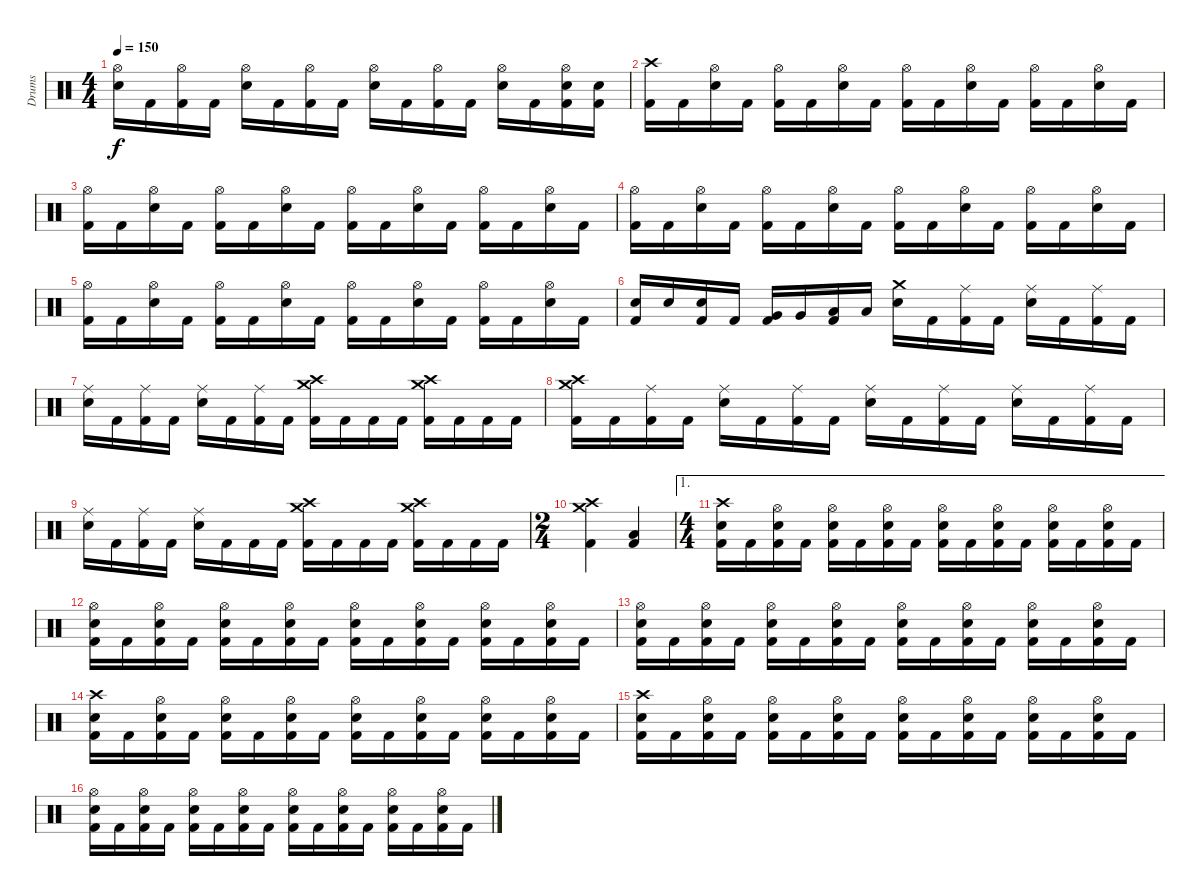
\track ("Drums" "Drums") {instrument percussion}
\staff {score}
\articulation defaults
\ts (4 4)
\tempo 150
\clef neutral
\ks c
("Hi-Hat (open)" "Electric Snare (hit)").16{dy f} "Kick (hit) 2".16 ("Hi-Hat (open)" "Kick (hit) 2").16 "Kick (hit) 2".16 ("Hi-Hat (open)" "Electric Snare (hit)").16 "Kick (hit) 2".16 ("Hi-Hat (open)" "Kick (hit) 2").16 "Kick (hit) 2".16 ("Hi-Hat (open)" "Electric Snare (hit)").16 "Kick (hit) 2".16 ("Hi-Hat (open)" "Kick (hit) 2").16 "Kick (hit) 2".16 ("Hi-Hat (open)" "Electric Snare (hit)").16 "Kick (hit) 2".16 ("Hi-Hat (open)" "Electric Snare (hit)" "Kick (hit) 2").16 ("Electric Snare (hit)" "Kick (hit) 2").16 |
("Crash high (hit)" "Kick (hit) 2").16 "Kick (hit) 2".16 ("Hi-Hat (open)" "Electric Snare (hit)").16 "Kick (hit) 2".16 ("Hi-Hat (open)" "Kick (hit) 2").16 "Kick (hit) 2".16 ("Hi-Hat (open)" "Electric Snare (hit)").16 "Kick (hit) 2".16 ("Hi-Hat (open)" "Kick (hit) 2").16 "Kick (hit) 2".16 ("Hi-Hat (open)" "Electric Snare (hit)").16 "Kick (hit) 2".16 ("Hi-Hat (open)" "Kick (hit) 2").16 "Kick (hit) 2".16 ("Hi-Hat (open)" "Electric Snare (hit)").16 "Kick (hit) 2".16 |
("Hi-Hat (open)" "Kick (hit) 2").16 "Kick (hit) 2".16 ("Hi-Hat (open)" "Electric Snare (hit)").16 "Kick (hit) 2".16 ("Hi-Hat (open)" "Kick (hit) 2").16 "Kick (hit) 2".16 ("Hi-Hat (open)" "Electric Snare (hit)").16 "Kick (hit) 2".16 ("Hi-Hat (open)" "Kick (hit) 2").16 "Kick (hit) 2".16 ("Hi-Hat (open)" "Electric Snare (hit)").16 "Kick (hit) 2".16 ("Hi-Hat (open)" "Kick (hit) 2").16 "Kick (hit) 2".16 ("Hi-Hat (open)" "Electric Snare (hit)").16 "Kick (hit) 2".16 |
("Hi-Hat (open)" "Kick (hit) 2").16 "Kick (hit) 2".16 ("Hi-Hat (open)" "Electric Snare (hit)").16 "Kick (hit) 2".16 ("Hi-Hat (open)" "Kick (hit) 2").16 "Kick (hit) 2".16 ("Hi-Hat (open)" "Electric Snare (hit)").16 "Kick (hit) 2".16 ("Hi-Hat (open)" "Kick (hit) 2").16 "Kick (hit) 2".16 ("Hi-Hat (open)" "Electric Snare (hit)").16 "Kick (hit) 2".16 ("Hi-Hat (open)" "Kick (hit) 2").16 "Kick (hit) 2".16 ("Hi-Hat (open)" "Electric Snare (hit)").16 "Kick (hit) 2".16 |
("Hi-Hat (open)" "Kick (hit) 2").16 "Kick (hit) 2".16 ("Hi-Hat (open)" "Electric Snare (hit)").16 "Kick (hit) 2".16 ("Hi-Hat (open)" "Kick (hit) 2").16 "Kick (hit) 2".16 ("Hi-Hat (open)" "Electric Snare (hit)").16 "Kick (hit) 2".16 ("Hi-Hat (open)" "Kick (hit) 2").16 "Kick (hit) 2".16 ("Hi-Hat (open)" "Electric Snare (hit)").16 "Kick (hit) 2".16 ("Hi-Hat (open)" "Kick (hit) 2").16 "Kick (hit) 2".16 ("Hi-Hat (open)" "Electric Snare (hit)").16 "Kick (hit) 2".16 |
("Electric Snare (hit)" "Kick (hit) 2").16 "Electric Snare (hit)".16 ("Electric Snare (hit)" "Kick (hit) 2").16 "Kick (hit) 2".16 ("Very Low Tom (hit)" "Kick (hit) 2").16 "Very Low Tom (hit)".16 ("Low Floor Tom (hit)" "Kick (hit) 2").16 "Low Floor Tom (hit)".16 ("Crash medium (hit)" "Electric Snare (hit)").16 "Kick (hit) 2".16 ("Ride (middle)" "Kick (hit) 2").16 "Kick (hit) 2".16 ("Ride (middle)" "Electric Snare (hit)").16 "Kick (hit) 2".16 ("Ride (middle)" "Kick (hit) 2").16 "Kick (hit) 2".16 |
("Ride (middle)" "Electric Snare (hit)").16 "Kick (hit) 2".16 ("Ride (middle)" "Kick (hit) 2").16 "Kick (hit) 2".16 ("Ride (middle)" "Electric Snare (hit)").16 "Kick (hit) 2".16 ("Ride (middle)" "Kick (hit) 2").16 "Kick (hit) 2".16 ("Crash medium (hit)" "Crash high (hit)" "Kick (hit) 2").16 "Kick (hit) 2".16 "Kick (hit) 2".16 "Kick (hit) 2".16 ("Crash medium (hit)" "Crash high (hit)" "Kick (hit) 2").16 "Kick (hit) 2".16 "Kick (hit) 2".16 "Kick (hit) 2".16 |
("Crash medium (hit)" "Crash high (hit)" "Kick (hit) 2").16 "Kick (hit) 2".16 ("Ride (middle)" "Kick (hit) 2").16 "Kick (hit) 2".16 ("Ride (middle)" "Electric Snare (hit)").16 "Kick (hit) 2".16 ("Ride (middle)" "Kick (hit) 2").16 "Kick (hit) 2".16 ("Ride (middle)" "Electric Snare (hit)").16 "Kick (hit) 2".16 ("Ride (middle)" "Kick (hit) 2").16 "Kick (hit) 2".16 ("Ride (middle)" "Electric Snare (hit)").16 "Kick (hit) 2".16 ("Ride (middle)" "Kick (hit) 2").16 "Kick (hit) 2".16 |
("Ride (middle)" "Electric Snare (hit)").16 "Kick (hit) 2".16 ("Ride (middle)" "Kick (hit) 2").16 "Kick (hit) 2".16 ("Ride (middle)" "Electric Snare (hit)").16 "Kick (hit) 2".16 "Kick (hit) 2".16 "Kick (hit) 2".16 ("Crash medium (hit)" "Crash high (hit)" "Kick (hit) 2").16 "Kick (hit) 2".16 "Kick (hit) 2".16 "Kick (hit) 2".16 ("Crash medium (hit)" "Crash high (hit)" "Kick (hit) 2").16 "Kick (hit) 2".16 "Kick (hit) 2".16 "Kick (hit) 2".16 |
\ts (2 4)
("Crash medium (hit)" "Crash high (hit)" "Kick (hit) 2").4 ("Low Floor Tom (hit)" "Kick (hit) 2").4 |
\ae 1
\ts (4 4)
("Crash high (hit)" "Electric Snare (hit)" "Kick (hit) 2").16 "Kick (hit) 2".16 ("Hi-Hat (open)" "Electric Snare (hit)" "Kick (hit) 2").16 "Kick (hit) 2".16 ("Hi-Hat (open)" "Electric Snare (hit)" "Kick (hit) 2").16 "Kick (hit) 2".16 ("Hi-Hat (open)" "Electric Snare (hit)" "Kick (hit) 2").16 "Kick (hit) 2".16 ("Hi-Hat (open)" "Electric Snare (hit)" "Kick (hit) 2").16 "Kick (hit) 2".16 ("Hi-Hat (open)" "Electric Snare (hit)" "Kick (hit) 2").16 "Kick (hit) 2".16 ("Hi-Hat (open)" "Electric Snare (hit)" "Kick (hit) 2").16 "Kick (hit) 2".16 ("Hi-Hat (open)" "Electric Snare (hit)" "Kick (hit) 2").16 "Kick (hit) 2".16 |
("Hi-Hat (open)" "Electric Snare (hit)" "Kick (hit) 2").16 "Kick (hit) 2".16 ("Hi-Hat (open)" "Electric Snare (hit)" "Kick (hit) 2").16 "Kick (hit) 2".16 ("Hi-Hat (open)" "Electric Snare (hit)" "Kick (hit) 2").16 "Kick (hit) 2".16 ("Hi-Hat (open)" "Electric Snare (hit)" "Kick (hit) 2").16 "Kick (hit) 2".16 ("Hi-Hat (open)" "Electric Snare (hit)" "Kick (hit) 2").16 "Kick (hit) 2".16 ("Hi-Hat (open)" "Electric Snare (hit)" "Kick (hit) 2").16 "Kick (hit) 2".16 ("Hi-Hat (open)" "Electric Snare (hit)" "Kick (hit) 2").16 "Kick (hit) 2".16 ("Hi-Hat (open)" "Electric Snare (hit)" "Kick (hit) 2").16 "Kick (hit) 2".16 |
("Hi-Hat (open)" "Electric Snare (hit)" "Kick (hit) 2").16 "Kick (hit) 2".16 ("Hi-Hat (open)" "Electric Snare (hit)" "Kick (hit) 2").16 "Kick (hit) 2".16 ("Hi-Hat (open)" "Electric Snare (hit)" "Kick (hit) 2").16 "Kick (hit) 2".16 ("Hi-Hat (open)" "Electric Snare (hit)" "Kick (hit) 2").16 "Kick (hit) 2".16 ("Hi-Hat (open)" "Electric Snare (hit)" "Kick (hit) 2").16 "Kick (hit) 2".16 ("Hi-Hat (open)" "Electric Snare (hit)" "Kick (hit) 2").16 "Kick (hit) 2".16 ("Hi-Hat (open)" "Electric Snare (hit)" "Kick (hit) 2").16 "Kick (hit) 2".16 ("Hi-Hat (open)" "Electric Snare (hit)" "Kick (hit) 2").16 "Kick (hit) 2".16 |
("Crash high (hit)" "Electric Snare (hit)" "Kick (hit) 2").16 "Kick (hit) 2".16 ("Hi-Hat (open)" "Electric Snare (hit)" "Kick (hit) 2").16 "Kick (hit) 2".16 ("Hi-Hat (open)" "Electric Snare (hit)" "Kick (hit) 2").16 "Kick (hit) 2".16 ("Hi-Hat (open)" "Electric Snare (hit)" "Kick (hit) 2").16 "Kick (hit) 2".16 ("Hi-Hat (open)" "Electric Snare (hit)" "Kick (hit) 2").16 "Kick (hit) 2".16 ("Hi-Hat (open)" "Electric Snare (hit)" "Kick (hit) 2").16 "Kick (hit) 2".16 ("Hi-Hat (open)" "Electric Snare (hit)" "Kick (hit) 2").16 "Kick (hit) 2".16 ("Hi-Hat (open)" "Electric Snare (hit)" "Kick (hit) 2").16 "Kick (hit) 2".16 |
("Crash high (hit)" "Electric Snare (hit)" "Kick (hit) 2").16 "Kick (hit) 2".16 ("Hi-Hat (open)" "Electric Snare (hit)" "Kick (hit) 2").16 "Kick (hit) 2".16 ("Hi-Hat (open)" "Electric Snare (hit)" "Kick (hit) 2").16 "Kick (hit) 2".16 ("Hi-Hat (open)" "Electric Snare (hit)" "Kick (hit) 2").16 "Kick (hit) 2".16 ("Hi-Hat (open)" "Electric Snare (hit)" "Kick (hit) 2").16 "Kick (hit) 2".16 ("Hi-Hat (open)" "Electric Snare (hit)" "Kick (hit) 2").16 "Kick (hit) 2".16 ("Hi-Hat (open)" "Electric Snare (hit)" "Kick (hit) 2").16 "Kick (hit) 2".16 ("Hi-Hat (open)" "Electric Snare (hit)" "Kick (hit) 2").16 "Kick (hit) 2".16 |
("Hi-Hat (open)" "Electric Snare (hit)" "Kick (hit) 2").16 "Kick (hit) 2".16 ("Hi-Hat (open)" "Electric Snare (hit)" "Kick (hit) 2").16 "Kick (hit) 2".16 ("Hi-Hat (open)" "Electric Snare (hit)" "Kick (hit) 2").16 "Kick (hit) 2".16 ("Hi-Hat (open)" "Electric Snare (hit)" "Kick (hit) 2").16 "Kick (hit) 2".16 ("Hi-Hat (open)" "Electric Snare (hit)" "Kick (hit) 2").16 "Kick (hit) 2".16 ("Hi-Hat (open)" "Electric Snare (hit)" "Kick (hit) 2").16 "Kick (hit) 2".16 ("Hi-Hat (open)" "Electric Snare (hit)" "Kick (hit) 2").16 "Kick (hit) 2".16 ("Hi-Hat (open)" "Electric Snare (hit)" "Kick (hit) 2").16 "Kick (hit) 2".16
